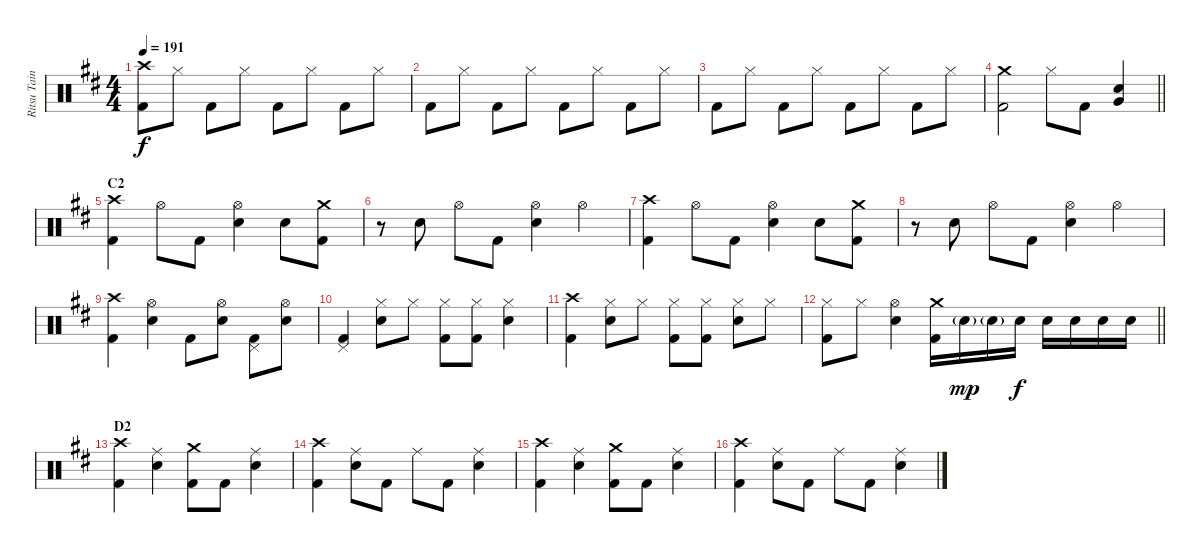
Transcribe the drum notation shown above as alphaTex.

\track ("Ritsu Tainaka" "Ritsu Tain") {instrument percussion}
\staff {score}
\articulation defaults
\ts (4 4)
\tempo 191
\clef neutral
\ks d
("Crash high (hit)" "Kick (hit) 2").8{dy f} "Hi-Hat (closed)".8 "Kick (hit) 2".8 "Hi-Hat (closed)".8 "Kick (hit) 2".8 "Hi-Hat (closed)".8 "Kick (hit) 2".8 "Hi-Hat (closed)".8 |
"Kick (hit) 2".8 "Hi-Hat (closed)".8 "Kick (hit) 2".8 "Hi-Hat (closed)".8 "Kick (hit) 2".8 "Hi-Hat (closed)".8 "Kick (hit) 2".8 "Hi-Hat (closed)".8 |
"Kick (hit) 2".8 "Hi-Hat (closed)".8 "Kick (hit) 2".8 "Hi-Hat (closed)".8 "Kick (hit) 2".8 "Hi-Hat (closed)".8 "Kick (hit) 2".8 "Hi-Hat (closed)".8 |
\barLineRight lightlight
("Crash medium (hit)" "Kick (hit) 2").2 "Hi-Hat (closed)".8 "Kick (hit) 2".8 ("Electric Snare (hit)" "Very Low Tom (hit)").4 |
\section ("" "C2")
("Crash high (hit)" "Kick (hit) 2").4 "Hi-Hat (open)".8 "Kick (hit) 2".8 ("Hi-Hat (open)" "Electric Snare (hit)").4 "Electric Snare (hit)".8 ("Crash medium (hit)" "Kick (hit) 2").8 |
r.8 "Electric Snare (hit)".8 "Hi-Hat (open)".8 "Kick (hit) 2".8 ("Hi-Hat (open)" "Electric Snare (hit)").4 "Hi-Hat (open)".4 |
("Crash high (hit)" "Kick (hit) 2").4 "Hi-Hat (open)".8 "Kick (hit) 2".8 ("Hi-Hat (open)" "Electric Snare (hit)").4 "Electric Snare (hit)".8 ("Crash medium (hit)" "Kick (hit) 2").8 |
r.8 "Electric Snare (hit)".8 "Hi-Hat (open)".8 "Kick (hit) 2".8 ("Hi-Hat (open)" "Electric Snare (hit)").4 "Hi-Hat (open)".4 |
("Crash high (hit)" "Kick (hit) 2").4 ("Hi-Hat (open)" "Electric Snare (hit)").4 "Kick (hit) 2".8 ("Hi-Hat (open)" "Electric Snare (hit)").8 ("Pedal Hi-Hat (hit)" "Kick (hit) 2").8 ("Hi-Hat (open)" "Electric Snare (hit)").8 |
("Pedal Hi-Hat (hit)" "Kick (hit) 2").4 ("Hi-Hat (closed)" "Electric Snare (hit)").8 "Hi-Hat (closed)".8 ("Hi-Hat (closed)" "Kick (hit) 2").8 ("Hi-Hat (closed)" "Kick (hit) 2").8 ("Hi-Hat (closed)" "Electric Snare (hit)").4 |
("Crash high (hit)" "Kick (hit) 2").4 ("Hi-Hat (closed)" "Electric Snare (hit)").8 "Hi-Hat (closed)".8 ("Hi-Hat (closed)" "Kick (hit) 2").8 ("Hi-Hat (closed)" "Kick (hit) 2").8 ("Hi-Hat (closed)" "Electric Snare (hit)").8 "Hi-Hat (closed)".8 |
\barLineRight lightlight
("Hi-Hat (closed)" "Kick (hit) 2").8 "Hi-Hat (closed)".8 ("Hi-Hat (open)" "Electric Snare (hit)").4 ("Crash medium (hit)" "Kick (hit) 2").16 "Electric Snare (hit)"{g}.16{dy mp} "Electric Snare (hit)"{g}.16 "Electric Snare (hit)".16{dy f} "Electric Snare (hit)".16 "Electric Snare (hit)".16 "Electric Snare (hit)".16 "Electric Snare (hit)".16 |
\section ("" "D2")
("Crash high (hit)" "Kick (hit) 2").4 ("Ride (middle)" "Electric Snare (hit)").4 ("Crash medium (hit)" "Kick (hit) 2").8 "Kick (hit) 2".8 ("Ride (middle)" "Electric Snare (hit)").4 |
("Crash high (hit)" "Kick (hit) 2").4 ("Ride (middle)" "Electric Snare (hit)").8 "Kick (hit) 2".8 "Ride (middle)".8 "Kick (hit) 2".8 ("Ride (middle)" "Electric Snare (hit)").4 |
("Crash high (hit)" "Kick (hit) 2").4 ("Ride (middle)" "Electric Snare (hit)").4 ("Crash medium (hit)" "Kick (hit) 2").8 "Kick (hit) 2".8 ("Ride (middle)" "Electric Snare (hit)").4 |
("Crash high (hit)" "Kick (hit) 2").4 ("Ride (middle)" "Electric Snare (hit)").8 "Kick (hit) 2".8 "Ride (middle)".8 "Kick (hit) 2".8 ("Ride (middle)" "Electric Snare (hit)").4
